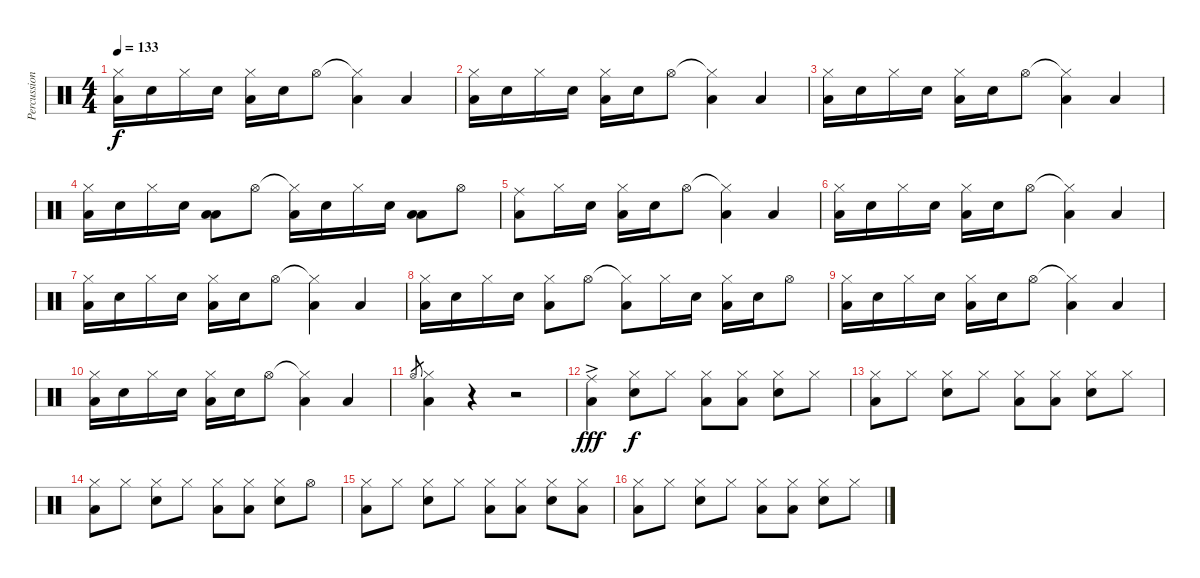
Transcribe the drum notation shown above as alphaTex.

\track ("Percussion" "Percussion") {instrument percussion}
\staff {score}
\articulation defaults
\ts (4 4)
\tempo 133
\clef neutral
\ks c
("Hi-Hat (closed)" "Low Floor Tom (hit)").16{dy f} "Snare (hit) 2".16 "Hi-Hat (closed)".16 "Snare (hit) 2".16 ("Hi-Hat (closed)" "Low Floor Tom (hit)").16 "Snare (hit) 2".16 "Hi-Hat (open)".8 ("Hi-Hat (closed)"{t} "Low Floor Tom (hit)").4 "Low Floor Tom (hit)".4 |
("Hi-Hat (closed)" "Low Floor Tom (hit)").16 "Snare (hit) 2".16 "Hi-Hat (closed)".16 "Snare (hit) 2".16 ("Hi-Hat (closed)" "Low Floor Tom (hit)").16 "Snare (hit) 2".16 "Hi-Hat (open)".8 ("Hi-Hat (closed)"{t} "Low Floor Tom (hit)").4 "Low Floor Tom (hit)".4 |
("Hi-Hat (closed)" "Low Floor Tom (hit)").16 "Snare (hit) 2".16 "Hi-Hat (closed)".16 "Snare (hit) 2".16 ("Hi-Hat (closed)" "Low Floor Tom (hit)").16 "Snare (hit) 2".16 "Hi-Hat (open)".8 ("Hi-Hat (closed)"{t} "Low Floor Tom (hit)").4 "Low Floor Tom (hit)".4 |
("Hi-Hat (closed)" "Low Floor Tom (hit)").16 "Snare (hit) 2".16 "Hi-Hat (closed)".16 "Snare (hit) 2".16 ("Low Tom (hit)" "Low Floor Tom (hit)").8 "Hi-Hat (open)".8 ("Hi-Hat (closed)"{t} "Low Floor Tom (hit)").16 "Snare (hit) 2".16 "Hi-Hat (closed)".16 "Snare (hit) 2".16 ("Low Tom (hit)" "Low Floor Tom (hit)").8 "Hi-Hat (open)".8 |
("Ride (middle)" "Low Floor Tom (hit)").8 "Hi-Hat (closed)".16 "Snare (hit) 2".16 ("Hi-Hat (closed)" "Low Floor Tom (hit)").16 "Snare (hit) 2".16 "Hi-Hat (open)".8 ("Hi-Hat (closed)"{t} "Low Floor Tom (hit)").4 "Low Floor Tom (hit)".4 |
("Hi-Hat (closed)" "Low Floor Tom (hit)").16 "Snare (hit) 2".16 "Hi-Hat (closed)".16 "Snare (hit) 2".16 ("Hi-Hat (closed)" "Low Floor Tom (hit)").16 "Snare (hit) 2".16 "Hi-Hat (open)".8 ("Hi-Hat (closed)"{t} "Low Floor Tom (hit)").4 "Low Floor Tom (hit)".4 |
("Hi-Hat (closed)" "Low Floor Tom (hit)").16 "Snare (hit) 2".16 "Hi-Hat (closed)".16 "Snare (hit) 2".16 ("Hi-Hat (closed)" "Low Floor Tom (hit)").16 "Snare (hit) 2".16 "Hi-Hat (open)".8 ("Hi-Hat (closed)"{t} "Low Floor Tom (hit)").4 "Low Floor Tom (hit)".4 |
("Hi-Hat (closed)" "Low Floor Tom (hit)").16 "Snare (hit) 2".16 "Hi-Hat (closed)".16 "Snare (hit) 2".16 ("Hi-Hat (closed)" "Low Floor Tom (hit)").8 "Hi-Hat (open)".8 ("Hi-Hat (closed)"{t} "Low Floor Tom (hit)").8 "Hi-Hat (closed)".16 "Snare (hit) 2".16 ("Hi-Hat (closed)" "Low Floor Tom (hit)").16 "Snare (hit) 2".16 "Hi-Hat (open)".8 |
("Hi-Hat (closed)" "Low Floor Tom (hit)").16 "Snare (hit) 2".16 "Hi-Hat (closed)".16 "Snare (hit) 2".16 ("Hi-Hat (closed)" "Low Floor Tom (hit)").16 "Snare (hit) 2".16 "Hi-Hat (open)".8 ("Hi-Hat (closed)"{t} "Low Floor Tom (hit)").4 "Low Floor Tom (hit)".4 |
("Hi-Hat (closed)" "Low Floor Tom (hit)").16 "Snare (hit) 2".16 "Hi-Hat (closed)".16 "Snare (hit) 2".16 ("Hi-Hat (closed)" "Low Floor Tom (hit)").16 "Snare (hit) 2".16 "Hi-Hat (open)".8 ("Hi-Hat (closed)"{t} "Low Floor Tom (hit)").4 "Low Floor Tom (hit)".4 |
"Hi-Hat (open)".8{gr} ("Hi-Hat (closed)" "Low Floor Tom (hit)").4 r.4 r.2 |
("Ride (middle)"{ac} "Low Floor Tom (hit)").4{dy fff} ("Hi-Hat (closed)" "Snare (hit) 2").8{dy f} "Hi-Hat (closed)".8 ("Hi-Hat (closed)" "Low Floor Tom (hit)").8 ("Hi-Hat (closed)" "Low Floor Tom (hit)").8 ("Hi-Hat (closed)" "Snare (hit) 2").8 "Hi-Hat (closed)".8 |
("Hi-Hat (closed)" "Low Floor Tom (hit)").8 "Hi-Hat (closed)".8 ("Hi-Hat (closed)" "Snare (hit) 2").8 "Hi-Hat (closed)".8 ("Hi-Hat (closed)" "Low Floor Tom (hit)").8 ("Hi-Hat (closed)" "Low Floor Tom (hit)").8 ("Hi-Hat (closed)" "Snare (hit) 2").8 "Hi-Hat (closed)".8 |
("Hi-Hat (closed)" "Low Floor Tom (hit)").8 "Hi-Hat (closed)".8 ("Hi-Hat (closed)" "Snare (hit) 2").8 "Hi-Hat (closed)".8 ("Hi-Hat (closed)" "Low Floor Tom (hit)").8 ("Hi-Hat (closed)" "Low Floor Tom (hit)").8 ("Hi-Hat (closed)" "Snare (hit) 2").8 "Hi-Hat (open)".8 |
("Hi-Hat (closed)" "Low Floor Tom (hit)").8 "Hi-Hat (closed)".8 ("Hi-Hat (closed)" "Snare (hit) 2").8 "Hi-Hat (closed)".8 ("Hi-Hat (closed)" "Low Floor Tom (hit)").8 ("Hi-Hat (closed)" "Low Floor Tom (hit)").8 ("Hi-Hat (closed)" "Snare (hit) 2").8 ("Hi-Hat (closed)" "Low Floor Tom (hit)").8 |
("Hi-Hat (closed)" "Low Floor Tom (hit)").8 "Hi-Hat (closed)".8 ("Hi-Hat (closed)" "Snare (hit) 2").8 "Hi-Hat (closed)".8 ("Hi-Hat (closed)" "Low Floor Tom (hit)").8 ("Hi-Hat (closed)" "Low Floor Tom (hit)").8 ("Hi-Hat (closed)" "Snare (hit) 2").8 "Hi-Hat (closed)".8
